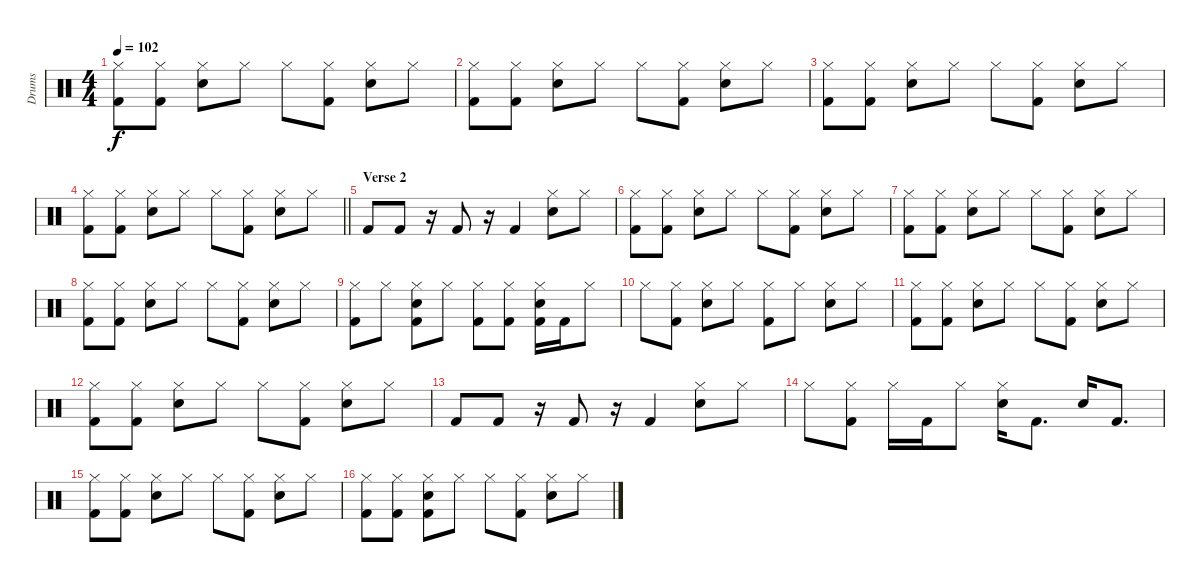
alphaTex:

\track ("Drums" "Drums") {instrument percussion}
\staff {score}
\articulation defaults
\ts (4 4)
\tempo 102
\clef neutral
\ks c
("Hi-Hat (closed)" "Kick (hit) 2").8{dy f} ("Hi-Hat (closed)" "Kick (hit) 2").8 ("Hi-Hat (closed)" "Snare (hit) 2").8 "Hi-Hat (closed)".8 "Hi-Hat (closed)".8 ("Hi-Hat (closed)" "Kick (hit) 2").8 ("Hi-Hat (closed)" "Snare (hit) 2").8 "Hi-Hat (closed)".8 |
("Hi-Hat (closed)" "Kick (hit) 2").8 ("Hi-Hat (closed)" "Kick (hit) 2").8 ("Hi-Hat (closed)" "Snare (hit) 2").8 "Hi-Hat (closed)".8 "Hi-Hat (closed)".8 ("Hi-Hat (closed)" "Kick (hit) 2").8 ("Hi-Hat (closed)" "Snare (hit) 2").8 "Hi-Hat (closed)".8 |
("Hi-Hat (closed)" "Kick (hit) 2").8 ("Hi-Hat (closed)" "Kick (hit) 2").8 ("Hi-Hat (closed)" "Snare (hit) 2").8 "Hi-Hat (closed)".8 "Hi-Hat (closed)".8 ("Hi-Hat (closed)" "Kick (hit) 2").8 ("Hi-Hat (closed)" "Snare (hit) 2").8 "Hi-Hat (closed)".8 |
\barLineRight lightlight
("Hi-Hat (closed)" "Kick (hit) 2").8 ("Hi-Hat (closed)" "Kick (hit) 2").8 ("Hi-Hat (closed)" "Snare (hit) 2").8 "Hi-Hat (closed)".8 "Hi-Hat (closed)".8 ("Hi-Hat (closed)" "Kick (hit) 2").8 ("Hi-Hat (closed)" "Snare (hit) 2").8 "Hi-Hat (closed)".8 |
\section ("" "Verse 2")
"Kick (hit) 2".8 "Kick (hit) 2".8 r.16 "Kick (hit) 2".8 r.16 "Kick (hit) 2".4 ("Hi-Hat (closed)" "Snare (hit) 2").8 "Hi-Hat (closed)".8 |
("Hi-Hat (closed)" "Kick (hit) 2").8 ("Hi-Hat (closed)" "Kick (hit) 2").8 ("Hi-Hat (closed)" "Snare (hit) 2").8 "Hi-Hat (closed)".8 "Hi-Hat (closed)".8 ("Hi-Hat (closed)" "Kick (hit) 2").8 ("Hi-Hat (closed)" "Snare (hit) 2").8 "Hi-Hat (closed)".8 |
("Hi-Hat (closed)" "Kick (hit) 2").8 ("Hi-Hat (closed)" "Kick (hit) 2").8 ("Hi-Hat (closed)" "Snare (hit) 2").8 "Hi-Hat (closed)".8 "Hi-Hat (closed)".8 ("Hi-Hat (closed)" "Kick (hit) 2").8 ("Hi-Hat (closed)" "Snare (hit) 2").8 "Hi-Hat (closed)".8 |
("Hi-Hat (closed)" "Kick (hit) 2").8 ("Hi-Hat (closed)" "Kick (hit) 2").8 ("Hi-Hat (closed)" "Snare (hit) 2").8 "Hi-Hat (closed)".8 "Hi-Hat (closed)".8 ("Hi-Hat (closed)" "Kick (hit) 2").8 ("Hi-Hat (closed)" "Snare (hit) 2").8 "Hi-Hat (closed)".8 |
("Hi-Hat (closed)" "Kick (hit) 2").8 "Hi-Hat (closed)".8 ("Hi-Hat (closed)" "Kick (hit) 2" "Snare (hit) 2").8 "Hi-Hat (closed)".8 ("Hi-Hat (closed)" "Kick (hit) 2").8 ("Hi-Hat (closed)" "Kick (hit) 2").8 ("Hi-Hat (closed)" "Kick (hit) 2" "Snare (hit) 2").16 "Kick (hit) 2".16 "Hi-Hat (closed)".8 |
"Hi-Hat (closed)".8 ("Hi-Hat (closed)" "Kick (hit) 2").8 ("Hi-Hat (closed)" "Snare (hit) 2").8 "Hi-Hat (closed)".8 ("Hi-Hat (closed)" "Kick (hit) 2").8 "Hi-Hat (closed)".8 ("Hi-Hat (closed)" "Snare (hit) 2").8 "Hi-Hat (closed)".8 |
("Hi-Hat (closed)" "Kick (hit) 2").8 ("Hi-Hat (closed)" "Kick (hit) 2").8 ("Hi-Hat (closed)" "Snare (hit) 2").8 "Hi-Hat (closed)".8 "Hi-Hat (closed)".8 ("Hi-Hat (closed)" "Kick (hit) 2").8 ("Hi-Hat (closed)" "Snare (hit) 2").8 "Hi-Hat (closed)".8 |
("Hi-Hat (closed)" "Kick (hit) 2").8 ("Hi-Hat (closed)" "Kick (hit) 2").8 ("Hi-Hat (closed)" "Snare (hit) 2").8 "Hi-Hat (closed)".8 "Hi-Hat (closed)".8 ("Hi-Hat (closed)" "Kick (hit) 2").8 ("Hi-Hat (closed)" "Snare (hit) 2").8 "Hi-Hat (closed)".8 |
"Kick (hit) 2".8 "Kick (hit) 2".8 r.16 "Kick (hit) 2".8 r.16 "Kick (hit) 2".4 ("Hi-Hat (closed)" "Snare (hit) 2").8 "Hi-Hat (closed)".8 |
"Hi-Hat (closed)".8 ("Hi-Hat (closed)" "Kick (hit) 2").8 "Hi-Hat (closed)".16 "Kick (hit) 2".16 "Hi-Hat (closed)".8 ("Hi-Hat (closed)" "Snare (hit) 2").16 "Kick (hit) 2".8{d} "Snare (hit) 2".16 "Kick (hit) 2".8{d} |
("Hi-Hat (closed)" "Kick (hit) 2").8 ("Hi-Hat (closed)" "Kick (hit) 2").8 ("Hi-Hat (closed)" "Snare (hit) 2").8 "Hi-Hat (closed)".8 "Hi-Hat (closed)".8 ("Hi-Hat (closed)" "Kick (hit) 2").8 ("Hi-Hat (closed)" "Snare (hit) 2").8 "Hi-Hat (closed)".8 |
("Hi-Hat (closed)" "Kick (hit) 2").8 ("Hi-Hat (closed)" "Kick (hit) 2").8 ("Hi-Hat (closed)" "Kick (hit) 2" "Snare (hit) 2").8 "Hi-Hat (closed)".8 "Hi-Hat (closed)".8 ("Hi-Hat (closed)" "Kick (hit) 2").8 ("Hi-Hat (closed)" "Snare (hit) 2").8 "Hi-Hat (closed)".8
